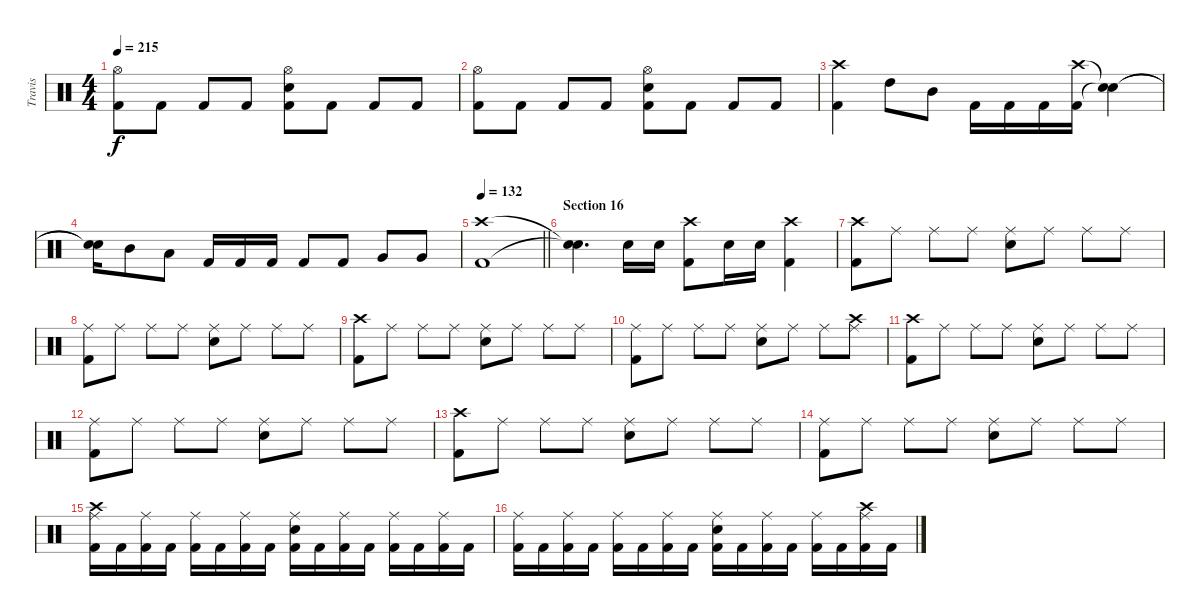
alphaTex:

\track ("Travis" "Travis") {instrument percussion}
\staff {score}
\articulation defaults
\ts (4 4)
\tempo 215
\clef neutral
\ks c
("Hi-Hat (open)" "Kick (hit) 2").8{dy f} "Kick (hit) 2".8 "Kick (hit) 2".8 "Kick (hit) 2".8 ("Hi-Hat (open)" "Snare (hit) 2" "Kick (hit) 2").8 "Kick (hit) 2".8 "Kick (hit) 2".8 "Kick (hit) 2".8 |
("Hi-Hat (open)" "Kick (hit) 2").8 "Kick (hit) 2".8 "Kick (hit) 2".8 "Kick (hit) 2".8 ("Hi-Hat (open)" "Snare (hit) 2" "Kick (hit) 2").8 "Kick (hit) 2".8 "Kick (hit) 2".8 "Kick (hit) 2".8 |
("Crash high (hit)" "Kick (hit) 2").4 "High Tom (hit)".8 "Mid Tom (hit)".8 "Kick (hit) 2".16 "Kick (hit) 2".16 "Kick (hit) 2".16 ("Crash high (hit)" "Kick (hit) 2").16 ("Snare (hit)"{t} "Snare (hit)"{t}).4 |
("Snare (hit)"{t} "Snare (hit)"{t}).16 "Mid Tom (hit)".8 "Low Tom (hit)".8 "Kick (hit) 2".16 "Kick (hit) 2".16 "Kick (hit) 2".16 "Kick (hit) 2".8 "Kick (hit) 2".8 "Very Low Tom (hit)".8 "Very Low Tom (hit)".8 |
\tempo 132
\barLineRight lightlight
("Crash high (hit)" "Kick (hit) 2").1 |
\section ("" "Section 16")
("Snare (hit)"{t} "Snare (hit)"{t}).4{d} "Snare (hit) 2".16 "Snare (hit) 2".16 ("Crash high (hit)" "Kick (hit) 2").8 "Snare (hit) 2".16 "Snare (hit) 2".16 ("Crash high (hit)" "Kick (hit) 2").4 |
("Crash high (hit)" "Kick (hit) 2").8 "Ride (middle)".8 "Ride (middle)".8 "Ride (middle)".8 ("Ride (middle)" "Snare (hit) 2").8 "Ride (middle)".8 "Ride (middle)".8 "Ride (middle)".8 |
("Ride (middle)" "Kick (hit) 2").8 "Ride (middle)".8 "Ride (middle)".8 "Ride (middle)".8 ("Ride (middle)" "Snare (hit) 2").8 "Ride (middle)".8 "Ride (middle)".8 "Ride (middle)".8 |
("Crash high (hit)" "Kick (hit) 2").8 "Ride (middle)".8 "Ride (middle)".8 "Ride (middle)".8 ("Ride (middle)" "Snare (hit) 2").8 "Ride (middle)".8 "Ride (middle)".8 "Ride (middle)".8 |
("Ride (middle)" "Kick (hit) 2").8 "Ride (middle)".8 "Ride (middle)".8 "Ride (middle)".8 ("Ride (middle)" "Snare (hit) 2").8 "Ride (middle)".8 "Ride (middle)".8 ("Crash high (hit)" "Ride (middle)").8 |
("Crash high (hit)" "Kick (hit) 2").8 "Ride (middle)".8 "Ride (middle)".8 "Ride (middle)".8 ("Ride (middle)" "Snare (hit) 2").8 "Ride (middle)".8 "Ride (middle)".8 "Ride (middle)".8 |
("Ride (middle)" "Kick (hit) 2").8 "Ride (middle)".8 "Ride (middle)".8 "Ride (middle)".8 ("Ride (middle)" "Snare (hit) 2").8 "Ride (middle)".8 "Ride (middle)".8 "Ride (middle)".8 |
("Crash high (hit)" "Kick (hit) 2").8 "Ride (middle)".8 "Ride (middle)".8 "Ride (middle)".8 ("Ride (middle)" "Snare (hit) 2").8 "Ride (middle)".8 "Ride (middle)".8 "Ride (middle)".8 |
("Ride (middle)" "Kick (hit) 2").8 "Ride (middle)".8 "Ride (middle)".8 "Ride (middle)".8 ("Ride (middle)" "Snare (hit) 2").8 "Ride (middle)".8 "Ride (middle)".8 "Ride (middle)".8 |
("Crash high (hit)" "Ride (middle)" "Kick (hit) 2").16 "Kick (hit) 2".16 ("Ride (middle)" "Kick (hit) 2").16 "Kick (hit) 2".16 ("Ride (middle)" "Kick (hit) 2").16 "Kick (hit) 2".16 ("Ride (middle)" "Kick (hit) 2").16 "Kick (hit) 2".16 ("Ride (middle)" "Snare (hit) 2" "Kick (hit) 2").16 "Kick (hit) 2".16 ("Ride (middle)" "Kick (hit) 2").16 "Kick (hit) 2".16 ("Ride (middle)" "Kick (hit) 2").16 "Kick (hit) 2".16 ("Ride (middle)" "Kick (hit) 2").16 "Kick (hit) 2".16 |
("Ride (middle)" "Kick (hit) 2").16 "Kick (hit) 2".16 ("Ride (middle)" "Kick (hit) 2").16 "Kick (hit) 2".16 ("Ride (middle)" "Kick (hit) 2").16 "Kick (hit) 2".16 ("Ride (middle)" "Kick (hit) 2").16 "Kick (hit) 2".16 ("Ride (middle)" "Snare (hit) 2" "Kick (hit) 2").16 "Kick (hit) 2".16 ("Ride (middle)" "Kick (hit) 2").16 "Kick (hit) 2".16 ("Ride (middle)" "Kick (hit) 2").16 "Kick (hit) 2".16 ("Crash high (hit)" "Ride (middle)" "Kick (hit) 2").16 "Kick (hit) 2".16
